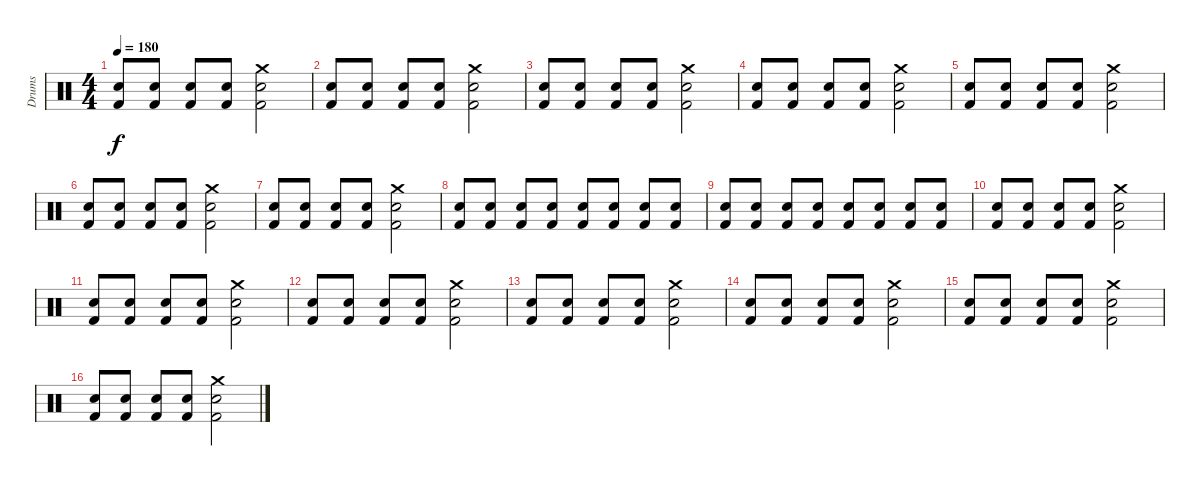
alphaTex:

\track ("Drums" "Drums") {instrument percussion}
\staff {score}
\articulation defaults
\ts (4 4)
\tempo 180
\clef neutral
\ks c
("Snare (hit) 2" "Kick (hit) 2").8{dy f} ("Snare (hit) 2" "Kick (hit) 2").8 ("Snare (hit) 2" "Kick (hit) 2").8 ("Snare (hit) 2" "Kick (hit) 2").8 ("Snare (hit) 2" "Crash medium (hit)" "Kick (hit) 2").2 |
("Snare (hit) 2" "Kick (hit) 2").8 ("Snare (hit) 2" "Kick (hit) 2").8 ("Snare (hit) 2" "Kick (hit) 2").8 ("Snare (hit) 2" "Kick (hit) 2").8 ("Snare (hit) 2" "Crash medium (hit)" "Kick (hit) 2").2 |
("Snare (hit) 2" "Kick (hit) 2").8 ("Snare (hit) 2" "Kick (hit) 2").8 ("Snare (hit) 2" "Kick (hit) 2").8 ("Snare (hit) 2" "Kick (hit) 2").8 ("Snare (hit) 2" "Crash medium (hit)" "Kick (hit) 2").2 |
("Snare (hit) 2" "Kick (hit) 2").8 ("Snare (hit) 2" "Kick (hit) 2").8 ("Snare (hit) 2" "Kick (hit) 2").8 ("Snare (hit) 2" "Kick (hit) 2").8 ("Snare (hit) 2" "Crash medium (hit)" "Kick (hit) 2").2 |
("Snare (hit) 2" "Kick (hit) 2").8 ("Snare (hit) 2" "Kick (hit) 2").8 ("Snare (hit) 2" "Kick (hit) 2").8 ("Snare (hit) 2" "Kick (hit) 2").8 ("Snare (hit) 2" "Crash medium (hit)" "Kick (hit) 2").2 |
("Snare (hit) 2" "Kick (hit) 2").8 ("Snare (hit) 2" "Kick (hit) 2").8 ("Snare (hit) 2" "Kick (hit) 2").8 ("Snare (hit) 2" "Kick (hit) 2").8 ("Snare (hit) 2" "Crash medium (hit)" "Kick (hit) 2").2 |
("Snare (hit) 2" "Kick (hit) 2").8 ("Snare (hit) 2" "Kick (hit) 2").8 ("Snare (hit) 2" "Kick (hit) 2").8 ("Snare (hit) 2" "Kick (hit) 2").8 ("Snare (hit) 2" "Crash medium (hit)" "Kick (hit) 2").2 |
("Snare (hit) 2" "Kick (hit) 2").8 ("Snare (hit) 2" "Kick (hit) 2").8 ("Snare (hit) 2" "Kick (hit) 2").8 ("Snare (hit) 2" "Kick (hit) 2").8 ("Snare (hit) 2" "Kick (hit) 2").8 ("Snare (hit) 2" "Kick (hit) 2").8 ("Snare (hit) 2" "Kick (hit) 2").8 ("Snare (hit) 2" "Kick (hit) 2").8 |
("Snare (hit) 2" "Kick (hit) 2").8 ("Snare (hit) 2" "Kick (hit) 2").8 ("Snare (hit) 2" "Kick (hit) 2").8 ("Snare (hit) 2" "Kick (hit) 2").8 ("Snare (hit) 2" "Kick (hit) 2").8 ("Snare (hit) 2" "Kick (hit) 2").8 ("Snare (hit) 2" "Kick (hit) 2").8 ("Snare (hit) 2" "Kick (hit) 2").8 |
("Snare (hit) 2" "Kick (hit) 2").8 ("Snare (hit) 2" "Kick (hit) 2").8 ("Snare (hit) 2" "Kick (hit) 2").8 ("Snare (hit) 2" "Kick (hit) 2").8 ("Snare (hit) 2" "Crash medium (hit)" "Kick (hit) 2").2 |
("Snare (hit) 2" "Kick (hit) 2").8 ("Snare (hit) 2" "Kick (hit) 2").8 ("Snare (hit) 2" "Kick (hit) 2").8 ("Snare (hit) 2" "Kick (hit) 2").8 ("Snare (hit) 2" "Crash medium (hit)" "Kick (hit) 2").2 |
("Snare (hit) 2" "Kick (hit) 2").8 ("Snare (hit) 2" "Kick (hit) 2").8 ("Snare (hit) 2" "Kick (hit) 2").8 ("Snare (hit) 2" "Kick (hit) 2").8 ("Snare (hit) 2" "Crash medium (hit)" "Kick (hit) 2").2 |
("Snare (hit) 2" "Kick (hit) 2").8 ("Snare (hit) 2" "Kick (hit) 2").8 ("Snare (hit) 2" "Kick (hit) 2").8 ("Snare (hit) 2" "Kick (hit) 2").8 ("Snare (hit) 2" "Crash medium (hit)" "Kick (hit) 2").2 |
("Snare (hit) 2" "Kick (hit) 2").8 ("Snare (hit) 2" "Kick (hit) 2").8 ("Snare (hit) 2" "Kick (hit) 2").8 ("Snare (hit) 2" "Kick (hit) 2").8 ("Snare (hit) 2" "Crash medium (hit)" "Kick (hit) 2").2 |
("Snare (hit) 2" "Kick (hit) 2").8 ("Snare (hit) 2" "Kick (hit) 2").8 ("Snare (hit) 2" "Kick (hit) 2").8 ("Snare (hit) 2" "Kick (hit) 2").8 ("Snare (hit) 2" "Crash medium (hit)" "Kick (hit) 2").2 |
("Snare (hit) 2" "Kick (hit) 2").8 ("Snare (hit) 2" "Kick (hit) 2").8 ("Snare (hit) 2" "Kick (hit) 2").8 ("Snare (hit) 2" "Kick (hit) 2").8 ("Snare (hit) 2" "Crash medium (hit)" "Kick (hit) 2").2
